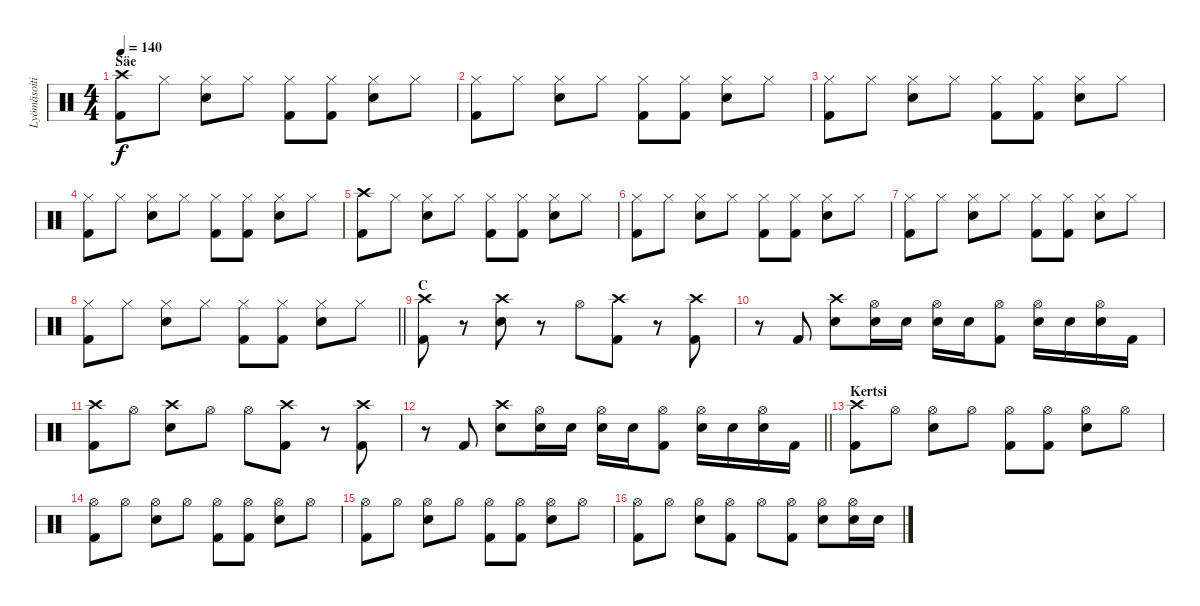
\track ("Lyömäsoitin" "Lyömäsoiti") {instrument percussion}
\staff {score}
\articulation defaults
\ts (4 4)
\section ("" "Säe")
\tempo 140
\clef neutral
\ks c
("Crash high (hit)" "Kick (hit) 2").8{dy f} "Hi-Hat (closed)".8 ("Hi-Hat (closed)" "Snare (hit) 2").8 "Hi-Hat (closed)".8 ("Hi-Hat (closed)" "Kick (hit) 2").8 ("Hi-Hat (closed)" "Kick (hit) 2").8 ("Hi-Hat (closed)" "Snare (hit) 2").8 "Hi-Hat (closed)".8 |
("Hi-Hat (closed)" "Kick (hit) 2").8 "Hi-Hat (closed)".8 ("Hi-Hat (closed)" "Snare (hit) 2").8 "Hi-Hat (closed)".8 ("Hi-Hat (closed)" "Kick (hit) 2").8 ("Hi-Hat (closed)" "Kick (hit) 2").8 ("Hi-Hat (closed)" "Snare (hit) 2").8 "Hi-Hat (closed)".8 |
("Hi-Hat (closed)" "Kick (hit) 2").8 "Hi-Hat (closed)".8 ("Hi-Hat (closed)" "Snare (hit) 2").8 "Hi-Hat (closed)".8 ("Hi-Hat (closed)" "Kick (hit) 2").8 ("Hi-Hat (closed)" "Kick (hit) 2").8 ("Hi-Hat (closed)" "Snare (hit) 2").8 "Hi-Hat (closed)".8 |
("Hi-Hat (closed)" "Kick (hit) 2").8 "Hi-Hat (closed)".8 ("Hi-Hat (closed)" "Snare (hit) 2").8 "Hi-Hat (closed)".8 ("Hi-Hat (closed)" "Kick (hit) 2").8 ("Hi-Hat (closed)" "Kick (hit) 2").8 ("Hi-Hat (closed)" "Snare (hit) 2").8 "Hi-Hat (closed)".8 |
("Crash high (hit)" "Kick (hit) 2").8 "Hi-Hat (closed)".8 ("Hi-Hat (closed)" "Snare (hit) 2").8 "Hi-Hat (closed)".8 ("Hi-Hat (closed)" "Kick (hit) 2").8 ("Hi-Hat (closed)" "Kick (hit) 2").8 ("Hi-Hat (closed)" "Snare (hit) 2").8 "Hi-Hat (closed)".8 |
("Hi-Hat (closed)" "Kick (hit) 2").8 "Hi-Hat (closed)".8 ("Hi-Hat (closed)" "Snare (hit) 2").8 "Hi-Hat (closed)".8 ("Hi-Hat (closed)" "Kick (hit) 2").8 ("Hi-Hat (closed)" "Kick (hit) 2").8 ("Hi-Hat (closed)" "Snare (hit) 2").8 "Hi-Hat (closed)".8 |
("Hi-Hat (closed)" "Kick (hit) 2").8 "Hi-Hat (closed)".8 ("Hi-Hat (closed)" "Snare (hit) 2").8 "Hi-Hat (closed)".8 ("Hi-Hat (closed)" "Kick (hit) 2").8 ("Hi-Hat (closed)" "Kick (hit) 2").8 ("Hi-Hat (closed)" "Snare (hit) 2").8 "Hi-Hat (closed)".8 |
\barLineRight lightlight
("Hi-Hat (closed)" "Kick (hit) 2").8 "Hi-Hat (closed)".8 ("Hi-Hat (closed)" "Snare (hit) 2").8 "Hi-Hat (closed)".8 ("Hi-Hat (closed)" "Kick (hit) 2").8 ("Hi-Hat (closed)" "Kick (hit) 2").8 ("Hi-Hat (closed)" "Snare (hit) 2").8 "Hi-Hat (closed)".8 |
\section ("" "C")
("Crash high (hit)" "Kick (hit) 2").8 r.8 ("Crash high (hit)" "Snare (hit) 2").8 r.8 "Hi-Hat (open)".8 ("Crash high (hit)" "Kick (hit) 2").8 r.8 ("Crash high (hit)" "Kick (hit) 2").8 |
r.8 "Kick (hit) 2".8 ("Crash high (hit)" "Snare (hit) 2").8 ("Hi-Hat (open)" "Snare (hit) 2").16 "Snare (hit) 2".16 ("Hi-Hat (open)" "Snare (hit) 2").16 "Snare (hit) 2".16 ("Hi-Hat (open)" "Kick (hit) 2").8 ("Hi-Hat (open)" "Snare (hit) 2").16 "Snare (hit) 2".16 ("Hi-Hat (open)" "Snare (hit) 2").16 "Kick (hit) 2".16 |
("Crash high (hit)" "Kick (hit) 2").8 "Hi-Hat (open)".8 ("Crash high (hit)" "Snare (hit) 2").8 "Hi-Hat (open)".8 "Hi-Hat (open)".8 ("Crash high (hit)" "Kick (hit) 2").8 r.8 ("Crash high (hit)" "Kick (hit) 2").8 |
\barLineRight lightlight
r.8 "Kick (hit) 2".8 ("Crash high (hit)" "Snare (hit) 2").8 ("Hi-Hat (open)" "Snare (hit) 2").16 "Snare (hit) 2".16 ("Hi-Hat (open)" "Snare (hit) 2").16 "Snare (hit) 2".16 ("Hi-Hat (open)" "Kick (hit) 2").8 ("Hi-Hat (open)" "Snare (hit) 2").16 "Snare (hit) 2".16 ("Hi-Hat (open)" "Snare (hit) 2").16 "Kick (hit) 2".16 |
\section ("" "Kertsi")
("Crash high (hit)" "Kick (hit) 2").8 "Hi-Hat (open)".8 ("Hi-Hat (open)" "Snare (hit) 2").8 "Hi-Hat (open)".8 ("Hi-Hat (open)" "Kick (hit) 2").8 ("Hi-Hat (open)" "Kick (hit) 2").8 ("Hi-Hat (open)" "Snare (hit) 2").8 "Hi-Hat (open)".8 |
("Hi-Hat (open)" "Kick (hit) 2").8 "Hi-Hat (open)".8 ("Hi-Hat (open)" "Snare (hit) 2").8 "Hi-Hat (open)".8 ("Hi-Hat (open)" "Kick (hit) 2").8 ("Hi-Hat (open)" "Kick (hit) 2").8 ("Hi-Hat (open)" "Snare (hit) 2").8 "Hi-Hat (open)".8 |
("Hi-Hat (open)" "Kick (hit) 2").8 "Hi-Hat (open)".8 ("Hi-Hat (open)" "Snare (hit) 2").8 "Hi-Hat (open)".8 ("Hi-Hat (open)" "Kick (hit) 2").8 ("Hi-Hat (open)" "Kick (hit) 2").8 ("Hi-Hat (open)" "Snare (hit) 2").8 "Hi-Hat (open)".8 |
("Hi-Hat (open)" "Kick (hit) 2").8 "Hi-Hat (open)".8 ("Hi-Hat (open)" "Snare (hit) 2").8 ("Hi-Hat (open)" "Kick (hit) 2").8 "Hi-Hat (open)".8 ("Hi-Hat (open)" "Kick (hit) 2").8 ("Hi-Hat (open)" "Snare (hit) 2").8 ("Hi-Hat (open)" "Snare (hit) 2").16 "Snare (hit) 2".16
